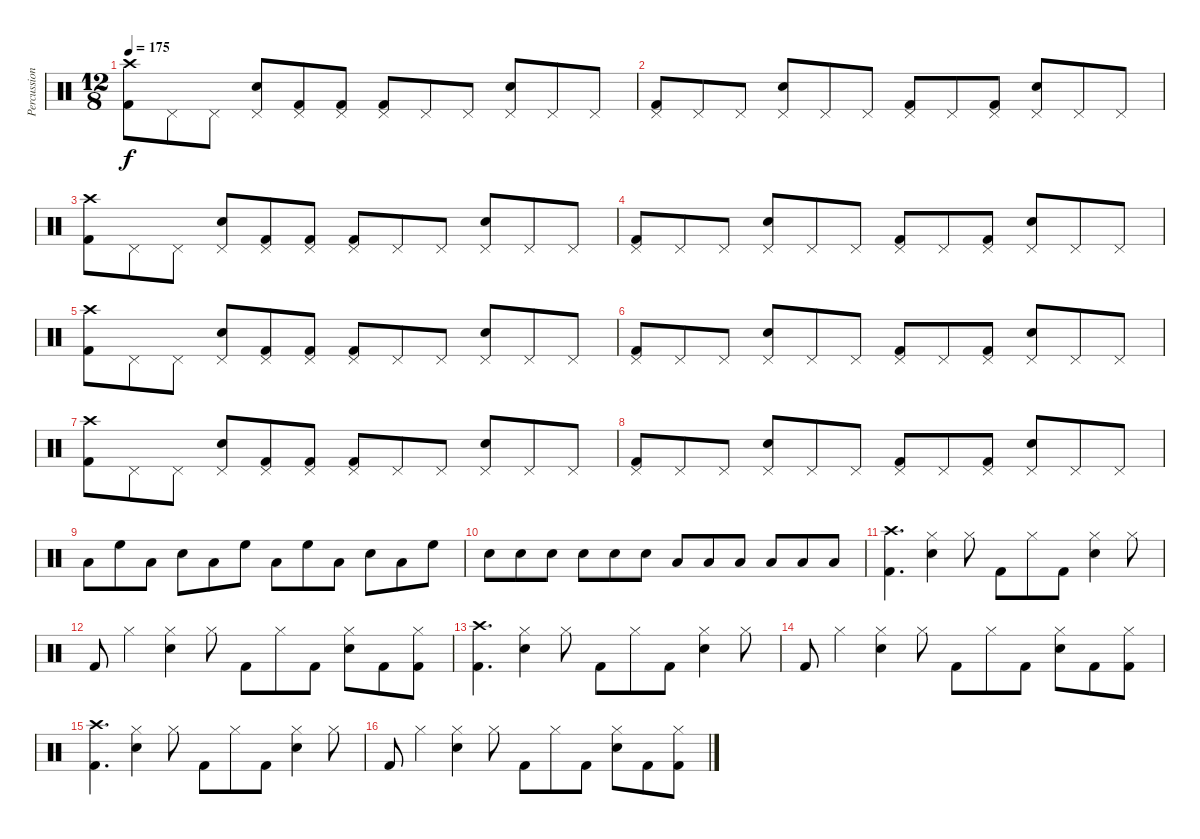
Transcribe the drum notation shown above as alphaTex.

\track ("Percussion" "Percussion") {instrument percussion}
\staff {score}
\articulation defaults
\ts (12 8)
\tempo 175
\clef neutral
\ks c
("Kick (hit) 2" "Crash high (hit)").8{dy f} "Pedal Hi-Hat (hit)".8 "Pedal Hi-Hat (hit)".8 ("Snare (hit) 2" "Pedal Hi-Hat (hit)").8 ("Kick (hit) 2" "Pedal Hi-Hat (hit)").8 ("Kick (hit) 2" "Pedal Hi-Hat (hit)").8 ("Kick (hit) 2" "Pedal Hi-Hat (hit)").8 "Pedal Hi-Hat (hit)".8 "Pedal Hi-Hat (hit)".8 ("Snare (hit) 2" "Pedal Hi-Hat (hit)").8 "Pedal Hi-Hat (hit)".8 "Pedal Hi-Hat (hit)".8 |
("Kick (hit) 2" "Pedal Hi-Hat (hit)").8 "Pedal Hi-Hat (hit)".8 "Pedal Hi-Hat (hit)".8 ("Snare (hit) 2" "Pedal Hi-Hat (hit)").8 "Pedal Hi-Hat (hit)".8 "Pedal Hi-Hat (hit)".8 ("Kick (hit) 2" "Pedal Hi-Hat (hit)").8 "Pedal Hi-Hat (hit)".8 ("Kick (hit) 2" "Pedal Hi-Hat (hit)").8 ("Snare (hit) 2" "Pedal Hi-Hat (hit)").8 "Pedal Hi-Hat (hit)".8 "Pedal Hi-Hat (hit)".8 |
("Kick (hit) 2" "Crash high (hit)").8 "Pedal Hi-Hat (hit)".8 "Pedal Hi-Hat (hit)".8 ("Snare (hit) 2" "Pedal Hi-Hat (hit)").8 ("Kick (hit) 2" "Pedal Hi-Hat (hit)").8 ("Kick (hit) 2" "Pedal Hi-Hat (hit)").8 ("Kick (hit) 2" "Pedal Hi-Hat (hit)").8 "Pedal Hi-Hat (hit)".8 "Pedal Hi-Hat (hit)".8 ("Snare (hit) 2" "Pedal Hi-Hat (hit)").8 "Pedal Hi-Hat (hit)".8 "Pedal Hi-Hat (hit)".8 |
("Kick (hit) 2" "Pedal Hi-Hat (hit)").8 "Pedal Hi-Hat (hit)".8 "Pedal Hi-Hat (hit)".8 ("Snare (hit) 2" "Pedal Hi-Hat (hit)").8 "Pedal Hi-Hat (hit)".8 "Pedal Hi-Hat (hit)".8 ("Kick (hit) 2" "Pedal Hi-Hat (hit)").8 "Pedal Hi-Hat (hit)".8 ("Kick (hit) 2" "Pedal Hi-Hat (hit)").8 ("Snare (hit) 2" "Pedal Hi-Hat (hit)").8 "Pedal Hi-Hat (hit)".8 "Pedal Hi-Hat (hit)".8 |
("Kick (hit) 2" "Crash high (hit)").8 "Pedal Hi-Hat (hit)".8 "Pedal Hi-Hat (hit)".8 ("Snare (hit) 2" "Pedal Hi-Hat (hit)").8 ("Kick (hit) 2" "Pedal Hi-Hat (hit)").8 ("Kick (hit) 2" "Pedal Hi-Hat (hit)").8 ("Kick (hit) 2" "Pedal Hi-Hat (hit)").8 "Pedal Hi-Hat (hit)".8 "Pedal Hi-Hat (hit)".8 ("Snare (hit) 2" "Pedal Hi-Hat (hit)").8 "Pedal Hi-Hat (hit)".8 "Pedal Hi-Hat (hit)".8 |
("Kick (hit) 2" "Pedal Hi-Hat (hit)").8 "Pedal Hi-Hat (hit)".8 "Pedal Hi-Hat (hit)".8 ("Snare (hit) 2" "Pedal Hi-Hat (hit)").8 "Pedal Hi-Hat (hit)".8 "Pedal Hi-Hat (hit)".8 ("Kick (hit) 2" "Pedal Hi-Hat (hit)").8 "Pedal Hi-Hat (hit)".8 ("Kick (hit) 2" "Pedal Hi-Hat (hit)").8 ("Snare (hit) 2" "Pedal Hi-Hat (hit)").8 "Pedal Hi-Hat (hit)".8 "Pedal Hi-Hat (hit)".8 |
("Kick (hit) 2" "Crash high (hit)").8 "Pedal Hi-Hat (hit)".8 "Pedal Hi-Hat (hit)".8 ("Snare (hit) 2" "Pedal Hi-Hat (hit)").8 ("Kick (hit) 2" "Pedal Hi-Hat (hit)").8 ("Kick (hit) 2" "Pedal Hi-Hat (hit)").8 ("Kick (hit) 2" "Pedal Hi-Hat (hit)").8 "Pedal Hi-Hat (hit)".8 "Pedal Hi-Hat (hit)".8 ("Snare (hit) 2" "Pedal Hi-Hat (hit)").8 "Pedal Hi-Hat (hit)".8 "Pedal Hi-Hat (hit)".8 |
("Kick (hit) 2" "Pedal Hi-Hat (hit)").8 "Pedal Hi-Hat (hit)".8 "Pedal Hi-Hat (hit)".8 ("Snare (hit) 2" "Pedal Hi-Hat (hit)").8 "Pedal Hi-Hat (hit)".8 "Pedal Hi-Hat (hit)".8 ("Kick (hit) 2" "Pedal Hi-Hat (hit)").8 "Pedal Hi-Hat (hit)".8 ("Kick (hit) 2" "Pedal Hi-Hat (hit)").8 ("Snare (hit) 2" "Pedal Hi-Hat (hit)").8 "Pedal Hi-Hat (hit)".8 "Pedal Hi-Hat (hit)".8 |
"Low Tom (hit)".8 "High Floor Tom (hit)".8 "Low Tom (hit)".8 "Snare (hit) 2".8 "Low Tom (hit)".8 "High Floor Tom (hit)".8 "Low Tom (hit)".8 "High Floor Tom (hit)".8 "Low Tom (hit)".8 "Snare (hit) 2".8 "Low Tom (hit)".8 "High Floor Tom (hit)".8 |
"Snare (hit) 2".8 "Snare (hit) 2".8 "Snare (hit) 2".8 "Snare (hit) 2".8 "Snare (hit) 2".8 "Snare (hit) 2".8 "Low Tom (hit)".8 "Low Tom (hit)".8 "Low Tom (hit)".8 "Low Floor Tom (hit)".8 "Low Floor Tom (hit)".8 "Low Floor Tom (hit)".8 |
("Kick (hit) 2" "Crash high (hit)").4{d} ("Snare (hit) 2" "Hi-Hat (closed)").4 "Hi-Hat (closed)".8 "Kick (hit) 2".8 "Hi-Hat (closed)".8 "Kick (hit) 2".8 ("Snare (hit) 2" "Hi-Hat (closed)").4 "Hi-Hat (closed)".8 |
"Kick (hit) 2".8 "Hi-Hat (closed)".4 ("Snare (hit) 2" "Hi-Hat (closed)").4 "Hi-Hat (closed)".8 "Kick (hit) 2".8 "Hi-Hat (closed)".8 "Kick (hit) 2".8 ("Snare (hit) 2" "Hi-Hat (closed)").8 "Kick (hit) 2".8 ("Kick (hit) 2" "Hi-Hat (closed)").8 |
("Kick (hit) 2" "Crash high (hit)").4{d} ("Snare (hit) 2" "Hi-Hat (closed)").4 "Hi-Hat (closed)".8 "Kick (hit) 2".8 "Hi-Hat (closed)".8 "Kick (hit) 2".8 ("Snare (hit) 2" "Hi-Hat (closed)").4 "Hi-Hat (closed)".8 |
"Kick (hit) 2".8 "Hi-Hat (closed)".4 ("Snare (hit) 2" "Hi-Hat (closed)").4 "Hi-Hat (closed)".8 "Kick (hit) 2".8 "Hi-Hat (closed)".8 "Kick (hit) 2".8 ("Snare (hit) 2" "Hi-Hat (closed)").8 "Kick (hit) 2".8 ("Kick (hit) 2" "Hi-Hat (closed)").8 |
("Kick (hit) 2" "Crash high (hit)").4{d} ("Snare (hit) 2" "Hi-Hat (closed)").4 "Hi-Hat (closed)".8 "Kick (hit) 2".8 "Hi-Hat (closed)".8 "Kick (hit) 2".8 ("Snare (hit) 2" "Hi-Hat (closed)").4 "Hi-Hat (closed)".8 |
"Kick (hit) 2".8 "Hi-Hat (closed)".4 ("Snare (hit) 2" "Hi-Hat (closed)").4 "Hi-Hat (closed)".8 "Kick (hit) 2".8 "Hi-Hat (closed)".8 "Kick (hit) 2".8 ("Snare (hit) 2" "Hi-Hat (closed)").8 "Kick (hit) 2".8 ("Kick (hit) 2" "Hi-Hat (closed)").8
